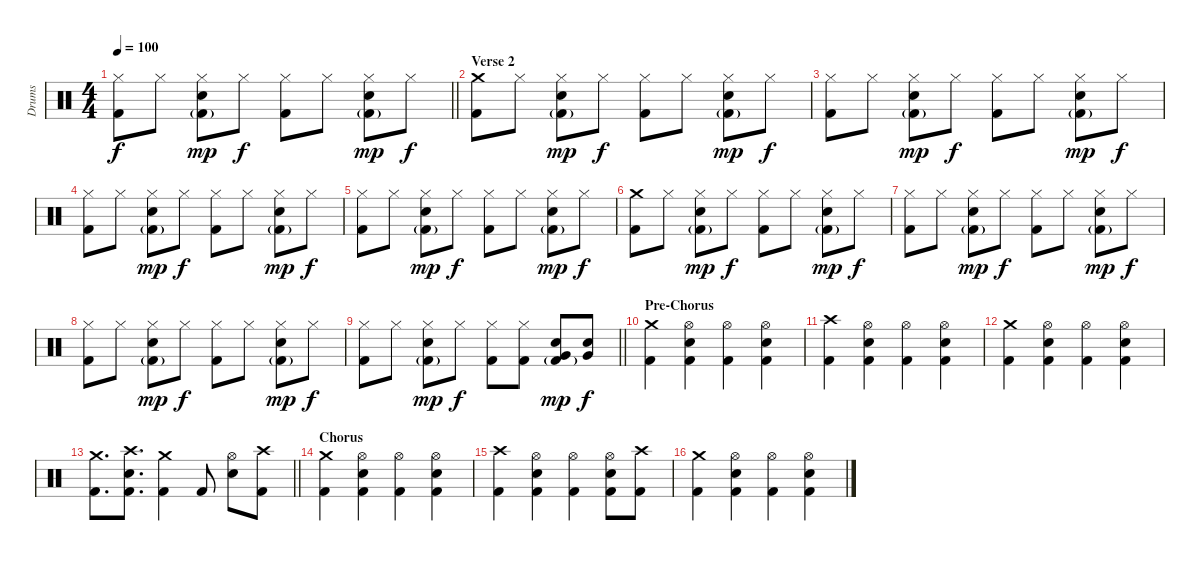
\track ("Drums" "Drums") {instrument percussion}
\staff {score}
\articulation defaults
\ts (4 4)
\tempo 100
\clef neutral
\barLineRight lightlight
\ks c
("Hi-Hat (closed)" "Kick (hit) 2").8{dy f} "Hi-Hat (closed)".8 ("Hi-Hat (closed)" "Electric Snare (hit)" "Kick (hit) 2"{g}).8{dy mp} "Hi-Hat (closed)".8{dy f} ("Hi-Hat (closed)" "Kick (hit) 2").8 "Hi-Hat (closed)".8 ("Hi-Hat (closed)" "Electric Snare (hit)" "Kick (hit) 2"{g}).8{dy mp} "Hi-Hat (closed)".8{dy f} |
\section ("" "Verse 2")
("Crash medium (hit)" "Kick (hit) 2").8 "Hi-Hat (closed)".8 ("Hi-Hat (closed)" "Electric Snare (hit)" "Kick (hit) 2"{g}).8{dy mp} "Hi-Hat (closed)".8{dy f} ("Hi-Hat (closed)" "Kick (hit) 2").8 "Hi-Hat (closed)".8 ("Hi-Hat (closed)" "Electric Snare (hit)" "Kick (hit) 2"{g}).8{dy mp} "Hi-Hat (closed)".8{dy f} |
("Hi-Hat (closed)" "Kick (hit) 2").8 "Hi-Hat (closed)".8 ("Hi-Hat (closed)" "Electric Snare (hit)" "Kick (hit) 2"{g}).8{dy mp} "Hi-Hat (closed)".8{dy f} ("Hi-Hat (closed)" "Kick (hit) 2").8 "Hi-Hat (closed)".8 ("Hi-Hat (closed)" "Electric Snare (hit)" "Kick (hit) 2"{g}).8{dy mp} "Hi-Hat (closed)".8{dy f} |
("Hi-Hat (closed)" "Kick (hit) 2").8 "Hi-Hat (closed)".8 ("Hi-Hat (closed)" "Electric Snare (hit)" "Kick (hit) 2"{g}).8{dy mp} "Hi-Hat (closed)".8{dy f} ("Hi-Hat (closed)" "Kick (hit) 2").8 "Hi-Hat (closed)".8 ("Hi-Hat (closed)" "Electric Snare (hit)" "Kick (hit) 2"{g}).8{dy mp} "Hi-Hat (closed)".8{dy f} |
("Hi-Hat (closed)" "Kick (hit) 2").8 "Hi-Hat (closed)".8 ("Hi-Hat (closed)" "Electric Snare (hit)" "Kick (hit) 2"{g}).8{dy mp} "Hi-Hat (closed)".8{dy f} ("Hi-Hat (closed)" "Kick (hit) 2").8 "Hi-Hat (closed)".8 ("Hi-Hat (closed)" "Electric Snare (hit)" "Kick (hit) 2"{g}).8{dy mp} "Hi-Hat (closed)".8{dy f} |
("Crash medium (hit)" "Kick (hit) 2").8 "Hi-Hat (closed)".8 ("Hi-Hat (closed)" "Electric Snare (hit)" "Kick (hit) 2"{g}).8{dy mp} "Hi-Hat (closed)".8{dy f} ("Hi-Hat (closed)" "Kick (hit) 2").8 "Hi-Hat (closed)".8 ("Hi-Hat (closed)" "Electric Snare (hit)" "Kick (hit) 2"{g}).8{dy mp} "Hi-Hat (closed)".8{dy f} |
("Hi-Hat (closed)" "Kick (hit) 2").8 "Hi-Hat (closed)".8 ("Hi-Hat (closed)" "Electric Snare (hit)" "Kick (hit) 2"{g}).8{dy mp} "Hi-Hat (closed)".8{dy f} ("Hi-Hat (closed)" "Kick (hit) 2").8 "Hi-Hat (closed)".8 ("Hi-Hat (closed)" "Electric Snare (hit)" "Kick (hit) 2"{g}).8{dy mp} "Hi-Hat (closed)".8{dy f} |
("Hi-Hat (closed)" "Kick (hit) 2").8 "Hi-Hat (closed)".8 ("Hi-Hat (closed)" "Electric Snare (hit)" "Kick (hit) 2"{g}).8{dy mp} "Hi-Hat (closed)".8{dy f} ("Hi-Hat (closed)" "Kick (hit) 2").8 "Hi-Hat (closed)".8 ("Hi-Hat (closed)" "Electric Snare (hit)" "Kick (hit) 2"{g}).8{dy mp} "Hi-Hat (closed)".8{dy f} |
\barLineRight lightlight
("Hi-Hat (closed)" "Kick (hit) 2").8 "Hi-Hat (closed)".8 ("Hi-Hat (closed)" "Electric Snare (hit)" "Kick (hit) 2"{g}).8{dy mp} "Hi-Hat (closed)".8{dy f} ("Hi-Hat (closed)" "Kick (hit) 2").8 ("Hi-Hat (closed)" "Kick (hit) 2").8 ("Electric Snare (hit)" "Very Low Tom (hit)" "Kick (hit) 2"{g}).8{dy mp} ("Electric Snare (hit)" "Very Low Tom (hit)").8{dy f} |
\section ("" "Pre-Chorus")
("Crash medium (hit)" "Kick (hit) 2").4 ("Hi-Hat (open)" "Electric Snare (hit)" "Kick (hit) 2").4 ("Hi-Hat (open)" "Kick (hit) 2").4 ("Hi-Hat (open)" "Electric Snare (hit)" "Kick (hit) 2").4 |
("Crash high (hit)" "Kick (hit) 2").4 ("Hi-Hat (open)" "Electric Snare (hit)" "Kick (hit) 2").4 ("Hi-Hat (open)" "Kick (hit) 2").4 ("Hi-Hat (open)" "Electric Snare (hit)" "Kick (hit) 2").4 |
("Crash medium (hit)" "Kick (hit) 2").4 ("Hi-Hat (open)" "Electric Snare (hit)" "Kick (hit) 2").4 ("Hi-Hat (open)" "Kick (hit) 2").4 ("Hi-Hat (open)" "Electric Snare (hit)" "Kick (hit) 2").4 |
\barLineRight lightlight
("Crash medium (hit)" "Kick (hit) 2").8{d} ("Crash high (hit)" "Electric Snare (hit)" "Kick (hit) 2").8{d} ("Crash medium (hit)" "Kick (hit) 2").4 "Kick (hit) 2".8 ("Hi-Hat (open)" "Electric Snare (hit)").8 ("Crash high (hit)" "Kick (hit) 2").8 |
\section ("" "Chorus")
("Crash medium (hit)" "Kick (hit) 2").4 ("Hi-Hat (open)" "Electric Snare (hit)" "Kick (hit) 2").4 ("Hi-Hat (open)" "Kick (hit) 2").4 ("Hi-Hat (open)" "Electric Snare (hit)" "Kick (hit) 2").4 |
("Crash high (hit)" "Kick (hit) 2").4 ("Hi-Hat (open)" "Electric Snare (hit)" "Kick (hit) 2").4 ("Hi-Hat (open)" "Kick (hit) 2").4 ("Hi-Hat (open)" "Electric Snare (hit)" "Kick (hit) 2").8 ("Crash high (hit)" "Kick (hit) 2").8 |
("Crash medium (hit)" "Kick (hit) 2").4 ("Hi-Hat (open)" "Electric Snare (hit)" "Kick (hit) 2").4 ("Hi-Hat (open)" "Kick (hit) 2").4 ("Hi-Hat (open)" "Electric Snare (hit)" "Kick (hit) 2").4
